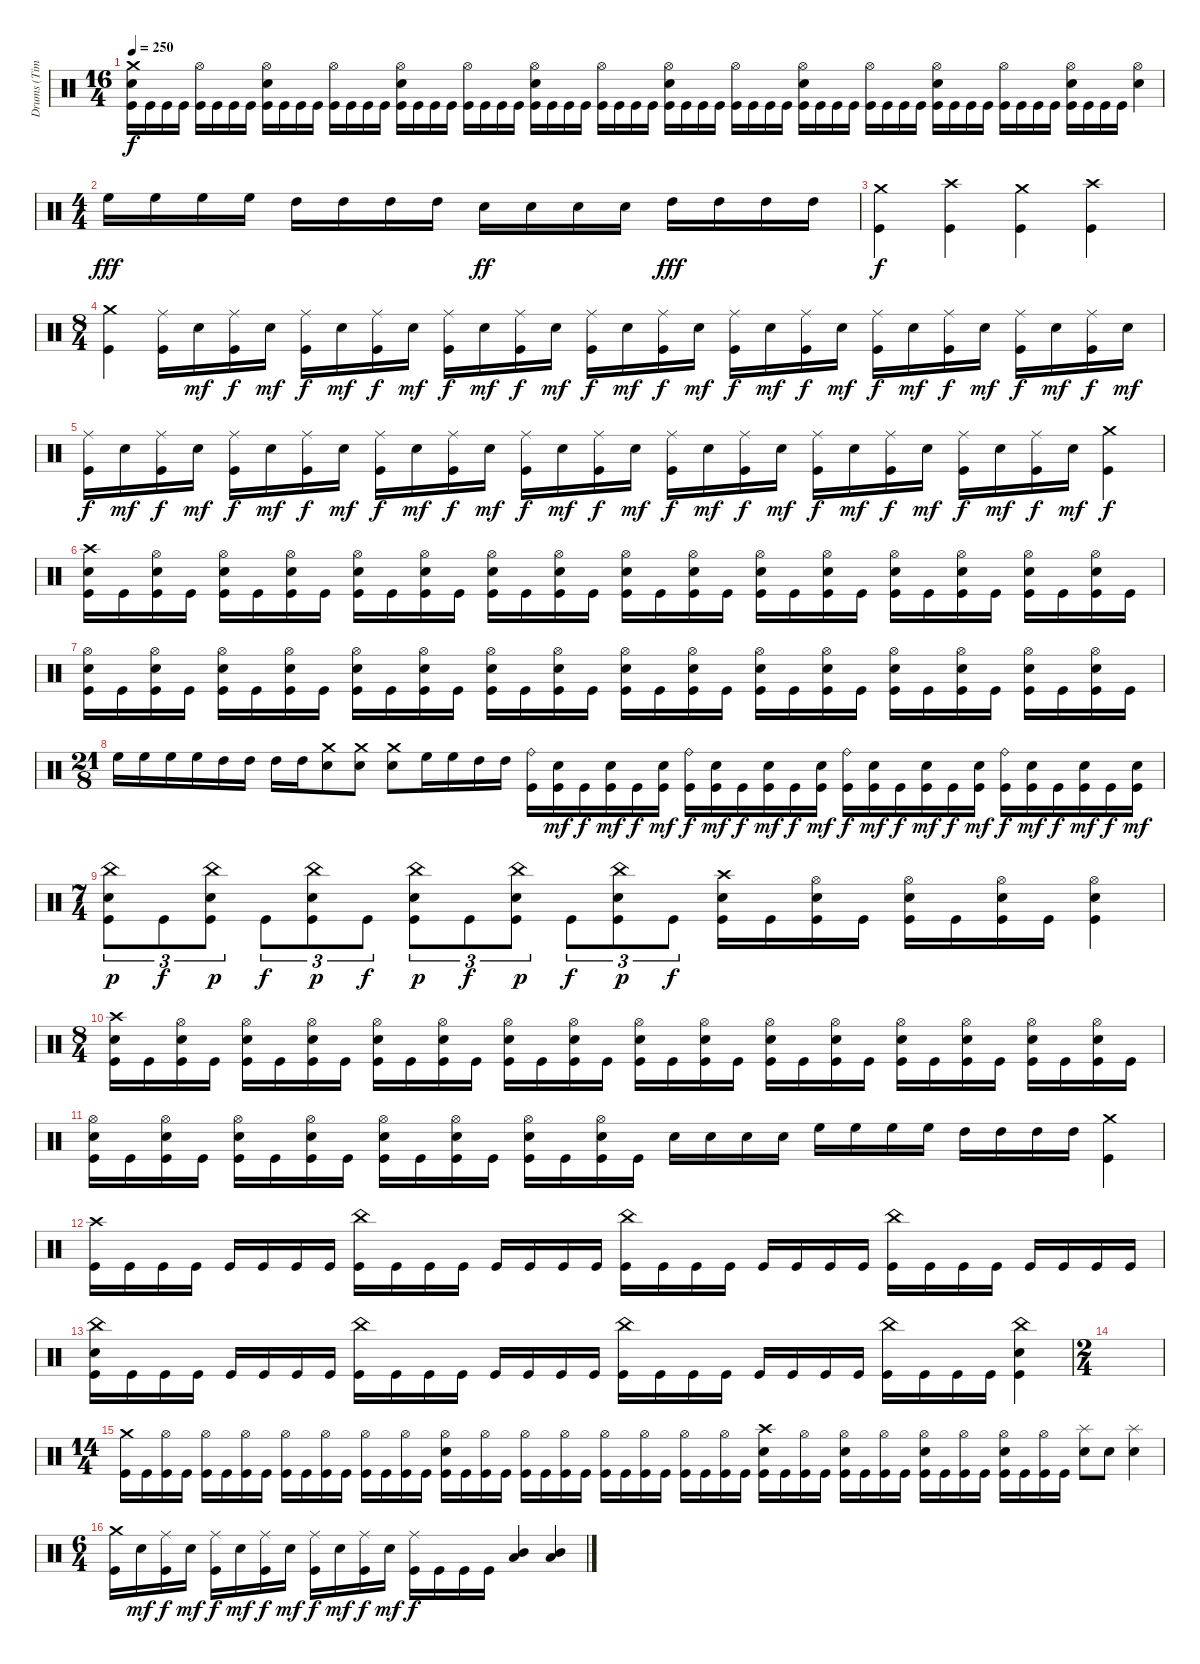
\track ("Drums (Tim Yeung)" "Drums (Tim") {instrument percussion}
\staff {score}
\articulation defaults
\ts (16 4)
\tempo 250
\clef neutral
\ks c
("Crash medium (hit)" "Electric Snare (hit)" "Kick (hit)").16{dy f} "Kick (hit)".16 "Kick (hit)".16 "Kick (hit)".16 ("Hi-Hat (open)" "Kick (hit)").16 "Kick (hit)".16 "Kick (hit)".16 "Kick (hit)".16 ("Hi-Hat (open)" "Electric Snare (hit)" "Kick (hit)").16 "Kick (hit)".16 "Kick (hit)".16 "Kick (hit)".16 ("Hi-Hat (open)" "Kick (hit)").16 "Kick (hit)".16 "Kick (hit)".16 "Kick (hit)".16 ("Hi-Hat (open)" "Electric Snare (hit)" "Kick (hit)").16 "Kick (hit)".16 "Kick (hit)".16 "Kick (hit)".16 ("Hi-Hat (open)" "Kick (hit)").16 "Kick (hit)".16 "Kick (hit)".16 "Kick (hit)".16 ("Hi-Hat (open)" "Electric Snare (hit)" "Kick (hit)").16 "Kick (hit)".16 "Kick (hit)".16 "Kick (hit)".16 ("Hi-Hat (open)" "Kick (hit)").16 "Kick (hit)".16 "Kick (hit)".16 "Kick (hit)".16 ("Hi-Hat (open)" "Electric Snare (hit)" "Kick (hit)").16 "Kick (hit)".16 "Kick (hit)".16 "Kick (hit)".16 ("Hi-Hat (open)" "Kick (hit)").16 "Kick (hit)".16 "Kick (hit)".16 "Kick (hit)".16 ("Hi-Hat (open)" "Electric Snare (hit)" "Kick (hit)").16 "Kick (hit)".16 "Kick (hit)".16 "Kick (hit)".16 ("Hi-Hat (open)" "Kick (hit)").16 "Kick (hit)".16 "Kick (hit)".16 "Kick (hit)".16 ("Hi-Hat (open)" "Electric Snare (hit)" "Kick (hit)").16 "Kick (hit)".16 "Kick (hit)".16 "Kick (hit)".16 ("Hi-Hat (open)" "Kick (hit)").16 "Kick (hit)".16 "Kick (hit)".16 "Kick (hit)".16 ("Hi-Hat (open)" "Electric Snare (hit)" "Kick (hit)").16 "Kick (hit)".16 "Kick (hit)".16 "Kick (hit)".16 ("Hi-Hat (open)" "Electric Snare (hit)").4 |
\ts (4 4)
"High Floor Tom (hit)".16{dy fff} "High Floor Tom (hit)".16 "High Floor Tom (hit)".16 "High Floor Tom (hit)".16 "High Tom (hit)".16 "High Tom (hit)".16 "High Tom (hit)".16 "High Tom (hit)".16 "Electric Snare (hit)".16{dy ff} "Electric Snare (hit)".16 "Electric Snare (hit)".16 "Electric Snare (hit)".16 "High Tom (hit)".16{dy fff} "High Tom (hit)".16 "High Tom (hit)".16 "High Tom (hit)".16 |
("Crash medium (hit)" "Kick (hit)").4{dy f} ("Crash high (hit)" "Kick (hit)").4 ("Crash medium (hit)" "Kick (hit)").4 ("Crash high (hit)" "Kick (hit)").4 |
\ts (8 4)
("Crash medium (hit)" "Kick (hit)").4 ("Ride (middle)" "Kick (hit)").16 "Electric Snare (hit)".16{dy mf} ("Ride (middle)" "Kick (hit)").16{dy f} "Electric Snare (hit)".16{dy mf} ("Ride (middle)" "Kick (hit)").16{dy f} "Electric Snare (hit)".16{dy mf} ("Ride (middle)" "Kick (hit)").16{dy f} "Electric Snare (hit)".16{dy mf} ("Ride (middle)" "Kick (hit)").16{dy f} "Electric Snare (hit)".16{dy mf} ("Ride (middle)" "Kick (hit)").16{dy f} "Electric Snare (hit)".16{dy mf} ("Ride (middle)" "Kick (hit)").16{dy f} "Electric Snare (hit)".16{dy mf} ("Ride (middle)" "Kick (hit)").16{dy f} "Electric Snare (hit)".16{dy mf} ("Ride (middle)" "Kick (hit)").16{dy f} "Electric Snare (hit)".16{dy mf} ("Ride (middle)" "Kick (hit)").16{dy f} "Electric Snare (hit)".16{dy mf} ("Ride (middle)" "Kick (hit)").16{dy f} "Electric Snare (hit)".16{dy mf} ("Ride (middle)" "Kick (hit)").16{dy f} "Electric Snare (hit)".16{dy mf} ("Ride (middle)" "Kick (hit)").16{dy f} "Electric Snare (hit)".16{dy mf} ("Ride (middle)" "Kick (hit)").16{dy f} "Electric Snare (hit)".16{dy mf} |
("Ride (middle)" "Kick (hit)").16{dy f} "Electric Snare (hit)".16{dy mf} ("Ride (middle)" "Kick (hit)").16{dy f} "Electric Snare (hit)".16{dy mf} ("Ride (middle)" "Kick (hit)").16{dy f} "Electric Snare (hit)".16{dy mf} ("Ride (middle)" "Kick (hit)").16{dy f} "Electric Snare (hit)".16{dy mf} ("Ride (middle)" "Kick (hit)").16{dy f} "Electric Snare (hit)".16{dy mf} ("Ride (middle)" "Kick (hit)").16{dy f} "Electric Snare (hit)".16{dy mf} ("Ride (middle)" "Kick (hit)").16{dy f} "Electric Snare (hit)".16{dy mf} ("Ride (middle)" "Kick (hit)").16{dy f} "Electric Snare (hit)".16{dy mf} ("Ride (middle)" "Kick (hit)").16{dy f} "Electric Snare (hit)".16{dy mf} ("Ride (middle)" "Kick (hit)").16{dy f} "Electric Snare (hit)".16{dy mf} ("Ride (middle)" "Kick (hit)").16{dy f} "Electric Snare (hit)".16{dy mf} ("Ride (middle)" "Kick (hit)").16{dy f} "Electric Snare (hit)".16{dy mf} ("Ride (middle)" "Kick (hit)").16{dy f} "Electric Snare (hit)".16{dy mf} ("Ride (middle)" "Kick (hit)").16{dy f} "Electric Snare (hit)".16{dy mf} ("Crash medium (hit)" "Kick (hit)").4{dy f} |
("Crash high (hit)" "Electric Snare (hit)" "Kick (hit)").16 "Kick (hit)".16 ("Hi-Hat (open)" "Electric Snare (hit)" "Kick (hit)").16 "Kick (hit)".16 ("Hi-Hat (open)" "Electric Snare (hit)" "Kick (hit)").16 "Kick (hit)".16 ("Hi-Hat (open)" "Electric Snare (hit)" "Kick (hit)").16 "Kick (hit)".16 ("Hi-Hat (open)" "Electric Snare (hit)" "Kick (hit)").16 "Kick (hit)".16 ("Hi-Hat (open)" "Electric Snare (hit)" "Kick (hit)").16 "Kick (hit)".16 ("Hi-Hat (open)" "Electric Snare (hit)" "Kick (hit)").16 "Kick (hit)".16 ("Hi-Hat (open)" "Electric Snare (hit)" "Kick (hit)").16 "Kick (hit)".16 ("Hi-Hat (open)" "Electric Snare (hit)" "Kick (hit)").16 "Kick (hit)".16 ("Hi-Hat (open)" "Electric Snare (hit)" "Kick (hit)").16 "Kick (hit)".16 ("Hi-Hat (open)" "Electric Snare (hit)" "Kick (hit)").16 "Kick (hit)".16 ("Hi-Hat (open)" "Electric Snare (hit)" "Kick (hit)").16 "Kick (hit)".16 ("Hi-Hat (open)" "Electric Snare (hit)" "Kick (hit)").16 "Kick (hit)".16 ("Hi-Hat (open)" "Electric Snare (hit)" "Kick (hit)").16 "Kick (hit)".16 ("Hi-Hat (open)" "Electric Snare (hit)" "Kick (hit)").16 "Kick (hit)".16 ("Hi-Hat (open)" "Electric Snare (hit)" "Kick (hit)").16 "Kick (hit)".16 |
("Hi-Hat (open)" "Electric Snare (hit)" "Kick (hit)").16 "Kick (hit)".16 ("Hi-Hat (open)" "Electric Snare (hit)" "Kick (hit)").16 "Kick (hit)".16 ("Hi-Hat (open)" "Electric Snare (hit)" "Kick (hit)").16 "Kick (hit)".16 ("Hi-Hat (open)" "Electric Snare (hit)" "Kick (hit)").16 "Kick (hit)".16 ("Hi-Hat (open)" "Electric Snare (hit)" "Kick (hit)").16 "Kick (hit)".16 ("Hi-Hat (open)" "Electric Snare (hit)" "Kick (hit)").16 "Kick (hit)".16 ("Hi-Hat (open)" "Electric Snare (hit)" "Kick (hit)").16 "Kick (hit)".16 ("Hi-Hat (open)" "Electric Snare (hit)" "Kick (hit)").16 "Kick (hit)".16 ("Hi-Hat (open)" "Electric Snare (hit)" "Kick (hit)").16 "Kick (hit)".16 ("Hi-Hat (open)" "Electric Snare (hit)" "Kick (hit)").16 "Kick (hit)".16 ("Hi-Hat (open)" "Electric Snare (hit)" "Kick (hit)").16 "Kick (hit)".16 ("Hi-Hat (open)" "Electric Snare (hit)" "Kick (hit)").16 "Kick (hit)".16 ("Hi-Hat (open)" "Electric Snare (hit)" "Kick (hit)").16 "Kick (hit)".16 ("Hi-Hat (open)" "Electric Snare (hit)" "Kick (hit)").16 "Kick (hit)".16 ("Hi-Hat (open)" "Electric Snare (hit)" "Kick (hit)").16 "Kick (hit)".16 ("Hi-Hat (open)" "Electric Snare (hit)" "Kick (hit)").16 "Kick (hit)".16 |
\ts (21 8)
"High Floor Tom (hit)".16 "High Floor Tom (hit)".16 "High Floor Tom (hit)".16 "High Floor Tom (hit)".16 "High Tom (hit)".16 "High Tom (hit)".16 "High Tom (hit)".16 "High Tom (hit)".16 ("Crash medium (hit)" "Electric Snare (hit)").8 ("Crash medium (hit)" "Electric Snare (hit)").8 ("Crash medium (hit)" "Electric Snare (hit)").8 "High Floor Tom (hit)".16 "High Floor Tom (hit)".16 "High Tom (hit)".16 "High Tom (hit)".16 ("Ride (bell)" "Kick (hit)").16 ("Electric Snare (hit)" "Kick (hit)").16{dy mf} "Kick (hit)".16{dy f} ("Electric Snare (hit)" "Kick (hit)").16{dy mf} "Kick (hit)".16{dy f} ("Electric Snare (hit)" "Kick (hit)").16{dy mf} ("Ride (bell)" "Kick (hit)").16{dy f} ("Electric Snare (hit)" "Kick (hit)").16{dy mf} "Kick (hit)".16{dy f} ("Electric Snare (hit)" "Kick (hit)").16{dy mf} "Kick (hit)".16{dy f} ("Electric Snare (hit)" "Kick (hit)").16{dy mf} ("Ride (bell)" "Kick (hit)").16{dy f} ("Electric Snare (hit)" "Kick (hit)").16{dy mf} "Kick (hit)".16{dy f} ("Electric Snare (hit)" "Kick (hit)").16{dy mf} "Kick (hit)".16{dy f} ("Electric Snare (hit)" "Kick (hit)").16{dy mf} ("Ride (bell)" "Kick (hit)").16{dy f} ("Electric Snare (hit)" "Kick (hit)").16{dy mf} "Kick (hit)".16{dy f} ("Electric Snare (hit)" "Kick (hit)").16{dy mf} "Kick (hit)".16{dy f} ("Electric Snare (hit)" "Kick (hit)").16{dy mf} |
\ts (7 4)
("China (hit)" "Electric Snare (hit)" "Kick (hit)").8{tu (3 2) dy p} "Kick (hit)".8{tu (3 2) dy f} ("China (hit)" "Electric Snare (hit)" "Kick (hit)").8{tu (3 2) dy p} "Kick (hit)".8{tu (3 2) dy f} ("China (hit)" "Electric Snare (hit)" "Kick (hit)").8{tu (3 2) dy p} "Kick (hit)".8{tu (3 2) dy f} ("China (hit)" "Electric Snare (hit)" "Kick (hit)").8{tu (3 2) dy p} "Kick (hit)".8{tu (3 2) dy f} ("China (hit)" "Electric Snare (hit)" "Kick (hit)").8{tu (3 2) dy p} "Kick (hit)".8{tu (3 2) dy f} ("China (hit)" "Electric Snare (hit)" "Kick (hit)").8{tu (3 2) dy p} "Kick (hit)".8{tu (3 2) dy f} ("Crash high (hit)" "Electric Snare (hit)" "Kick (hit)").16 "Kick (hit)".16 ("Hi-Hat (open)" "Electric Snare (hit)" "Kick (hit)").16 "Kick (hit)".16 ("Hi-Hat (open)" "Electric Snare (hit)" "Kick (hit)").16 "Kick (hit)".16 ("Hi-Hat (open)" "Electric Snare (hit)" "Kick (hit)").16 "Kick (hit)".16 ("Hi-Hat (open)" "Electric Snare (hit)" "Kick (hit)").4 |
\ts (8 4)
("Crash high (hit)" "Electric Snare (hit)" "Kick (hit)").16 "Kick (hit)".16 ("Hi-Hat (open)" "Electric Snare (hit)" "Kick (hit)").16 "Kick (hit)".16 ("Hi-Hat (open)" "Electric Snare (hit)" "Kick (hit)").16 "Kick (hit)".16 ("Hi-Hat (open)" "Electric Snare (hit)" "Kick (hit)").16 "Kick (hit)".16 ("Hi-Hat (open)" "Electric Snare (hit)" "Kick (hit)").16 "Kick (hit)".16 ("Hi-Hat (open)" "Electric Snare (hit)" "Kick (hit)").16 "Kick (hit)".16 ("Hi-Hat (open)" "Electric Snare (hit)" "Kick (hit)").16 "Kick (hit)".16 ("Hi-Hat (open)" "Electric Snare (hit)" "Kick (hit)").16 "Kick (hit)".16 ("Hi-Hat (open)" "Electric Snare (hit)" "Kick (hit)").16 "Kick (hit)".16 ("Hi-Hat (open)" "Electric Snare (hit)" "Kick (hit)").16 "Kick (hit)".16 ("Hi-Hat (open)" "Electric Snare (hit)" "Kick (hit)").16 "Kick (hit)".16 ("Hi-Hat (open)" "Electric Snare (hit)" "Kick (hit)").16 "Kick (hit)".16 ("Hi-Hat (open)" "Electric Snare (hit)" "Kick (hit)").16 "Kick (hit)".16 ("Hi-Hat (open)" "Electric Snare (hit)" "Kick (hit)").16 "Kick (hit)".16 ("Hi-Hat (open)" "Electric Snare (hit)" "Kick (hit)").16 "Kick (hit)".16 ("Hi-Hat (open)" "Electric Snare (hit)" "Kick (hit)").16 "Kick (hit)".16 |
("Hi-Hat (open)" "Electric Snare (hit)" "Kick (hit)").16 "Kick (hit)".16 ("Hi-Hat (open)" "Electric Snare (hit)" "Kick (hit)").16 "Kick (hit)".16 ("Hi-Hat (open)" "Electric Snare (hit)" "Kick (hit)").16 "Kick (hit)".16 ("Hi-Hat (open)" "Electric Snare (hit)" "Kick (hit)").16 "Kick (hit)".16 ("Hi-Hat (open)" "Electric Snare (hit)" "Kick (hit)").16 "Kick (hit)".16 ("Hi-Hat (open)" "Electric Snare (hit)" "Kick (hit)").16 "Kick (hit)".16 ("Hi-Hat (open)" "Electric Snare (hit)" "Kick (hit)").16 "Kick (hit)".16 ("Hi-Hat (open)" "Electric Snare (hit)" "Kick (hit)").16 "Kick (hit)".16 "Electric Snare (hit)".16 "Electric Snare (hit)".16 "Electric Snare (hit)".16 "Electric Snare (hit)".16 "High Floor Tom (hit)".16 "High Floor Tom (hit)".16 "High Floor Tom (hit)".16 "High Floor Tom (hit)".16 "High Tom (hit)".16 "High Tom (hit)".16 "High Tom (hit)".16 "High Tom (hit)".16 ("Crash medium (hit)" "Kick (hit)").4 |
("Crash high (hit)" "Kick (hit)").16 "Kick (hit)".16 "Kick (hit)".16 "Kick (hit)".16 "Kick (hit)".16 "Kick (hit)".16 "Kick (hit)".16 "Kick (hit)".16 ("China (hit)" "Kick (hit)").16 "Kick (hit)".16 "Kick (hit)".16 "Kick (hit)".16 "Kick (hit)".16 "Kick (hit)".16 "Kick (hit)".16 "Kick (hit)".16 ("China (hit)" "Kick (hit)").16 "Kick (hit)".16 "Kick (hit)".16 "Kick (hit)".16 "Kick (hit)".16 "Kick (hit)".16 "Kick (hit)".16 "Kick (hit)".16 ("China (hit)" "Kick (hit)").16 "Kick (hit)".16 "Kick (hit)".16 "Kick (hit)".16 "Kick (hit)".16 "Kick (hit)".16 "Kick (hit)".16 "Kick (hit)".16 |
("China (hit)" "Electric Snare (hit)" "Kick (hit)").16 "Kick (hit)".16 "Kick (hit)".16 "Kick (hit)".16 "Kick (hit)".16 "Kick (hit)".16 "Kick (hit)".16 "Kick (hit)".16 ("China (hit)" "Kick (hit)").16 "Kick (hit)".16 "Kick (hit)".16 "Kick (hit)".16 "Kick (hit)".16 "Kick (hit)".16 "Kick (hit)".16 "Kick (hit)".16 ("China (hit)" "Kick (hit)").16 "Kick (hit)".16 "Kick (hit)".16 "Kick (hit)".16 "Kick (hit)".16 "Kick (hit)".16 "Kick (hit)".16 "Kick (hit)".16 ("China (hit)" "Kick (hit)").16 "Kick (hit)".16 "Kick (hit)".16 "Kick (hit)".16 ("China (hit)" "Electric Snare (hit)" "Kick (hit)").4 |
\ts (2 4)
|
\ts (14 4)
("Crash medium (hit)" "Kick (hit)").16 "Kick (hit)".16 ("Hi-Hat (open)" "Kick (hit)").16 "Kick (hit)".16 ("Hi-Hat (open)" "Kick (hit)").16 "Kick (hit)".16 ("Hi-Hat (open)" "Kick (hit)").16 "Kick (hit)".16 ("Hi-Hat (open)" "Kick (hit)").16 "Kick (hit)".16 ("Hi-Hat (open)" "Kick (hit)").16 "Kick (hit)".16 ("Hi-Hat (open)" "Kick (hit)").16 "Kick (hit)".16 ("Hi-Hat (open)" "Kick (hit)").16 "Kick (hit)".16 ("Hi-Hat (open)" "Electric Snare (hit)" "Kick (hit)").16 "Kick (hit)".16 ("Hi-Hat (open)" "Kick (hit)").16 "Kick (hit)".16 ("Hi-Hat (open)" "Kick (hit)").16 "Kick (hit)".16 ("Hi-Hat (open)" "Kick (hit)").16 "Kick (hit)".16 ("Hi-Hat (open)" "Kick (hit)").16 "Kick (hit)".16 ("Hi-Hat (open)" "Kick (hit)").16 "Kick (hit)".16 ("Hi-Hat (open)" "Kick (hit)").16 "Kick (hit)".16 ("Hi-Hat (open)" "Kick (hit)").16 "Kick (hit)".16 ("Crash high (hit)" "Electric Snare (hit)" "Kick (hit)").16 "Kick (hit)".16 ("Hi-Hat (open)" "Kick (hit)").16 "Kick (hit)".16 ("Hi-Hat (open)" "Electric Snare (hit)" "Kick (hit)").16 "Kick (hit)".16 ("Hi-Hat (open)" "Kick (hit)").16 "Kick (hit)".16 ("Hi-Hat (open)" "Electric Snare (hit)" "Kick (hit)").16 "Kick (hit)".16 ("Hi-Hat (open)" "Kick (hit)").16 "Kick (hit)".16 ("Hi-Hat (open)" "Electric Snare (hit)" "Kick (hit)").16 "Kick (hit)".16 ("Hi-Hat (open)" "Kick (hit)").16 "Kick (hit)".16 ("Splash (hit)" "Electric Snare (hit)").8 "Electric Snare (hit)".8 ("Splash (hit)" "Electric Snare (hit)").4 |
\ts (6 4)
("Crash medium (hit)" "Kick (hit)").16 "Electric Snare (hit)".16{dy mf} ("Ride (middle)" "Kick (hit)").16{dy f} "Electric Snare (hit)".16{dy mf} ("Ride (middle)" "Kick (hit)").16{dy f} "Electric Snare (hit)".16{dy mf} ("Ride (middle)" "Kick (hit)").16{dy f} "Electric Snare (hit)".16{dy mf} ("Ride (middle)" "Kick (hit)").16{dy f} "Electric Snare (hit)".16{dy mf} ("Ride (middle)" "Kick (hit)").16{dy f} "Electric Snare (hit)".16{dy mf} ("Ride (middle)" "Kick (hit)").16{dy f} "Kick (hit)".16 "Kick (hit)".16 "Kick (hit)".16 ("Mid Tom (hit)" "Low Tom (hit)").4 ("Mid Tom (hit)" "Low Tom (hit)").4
